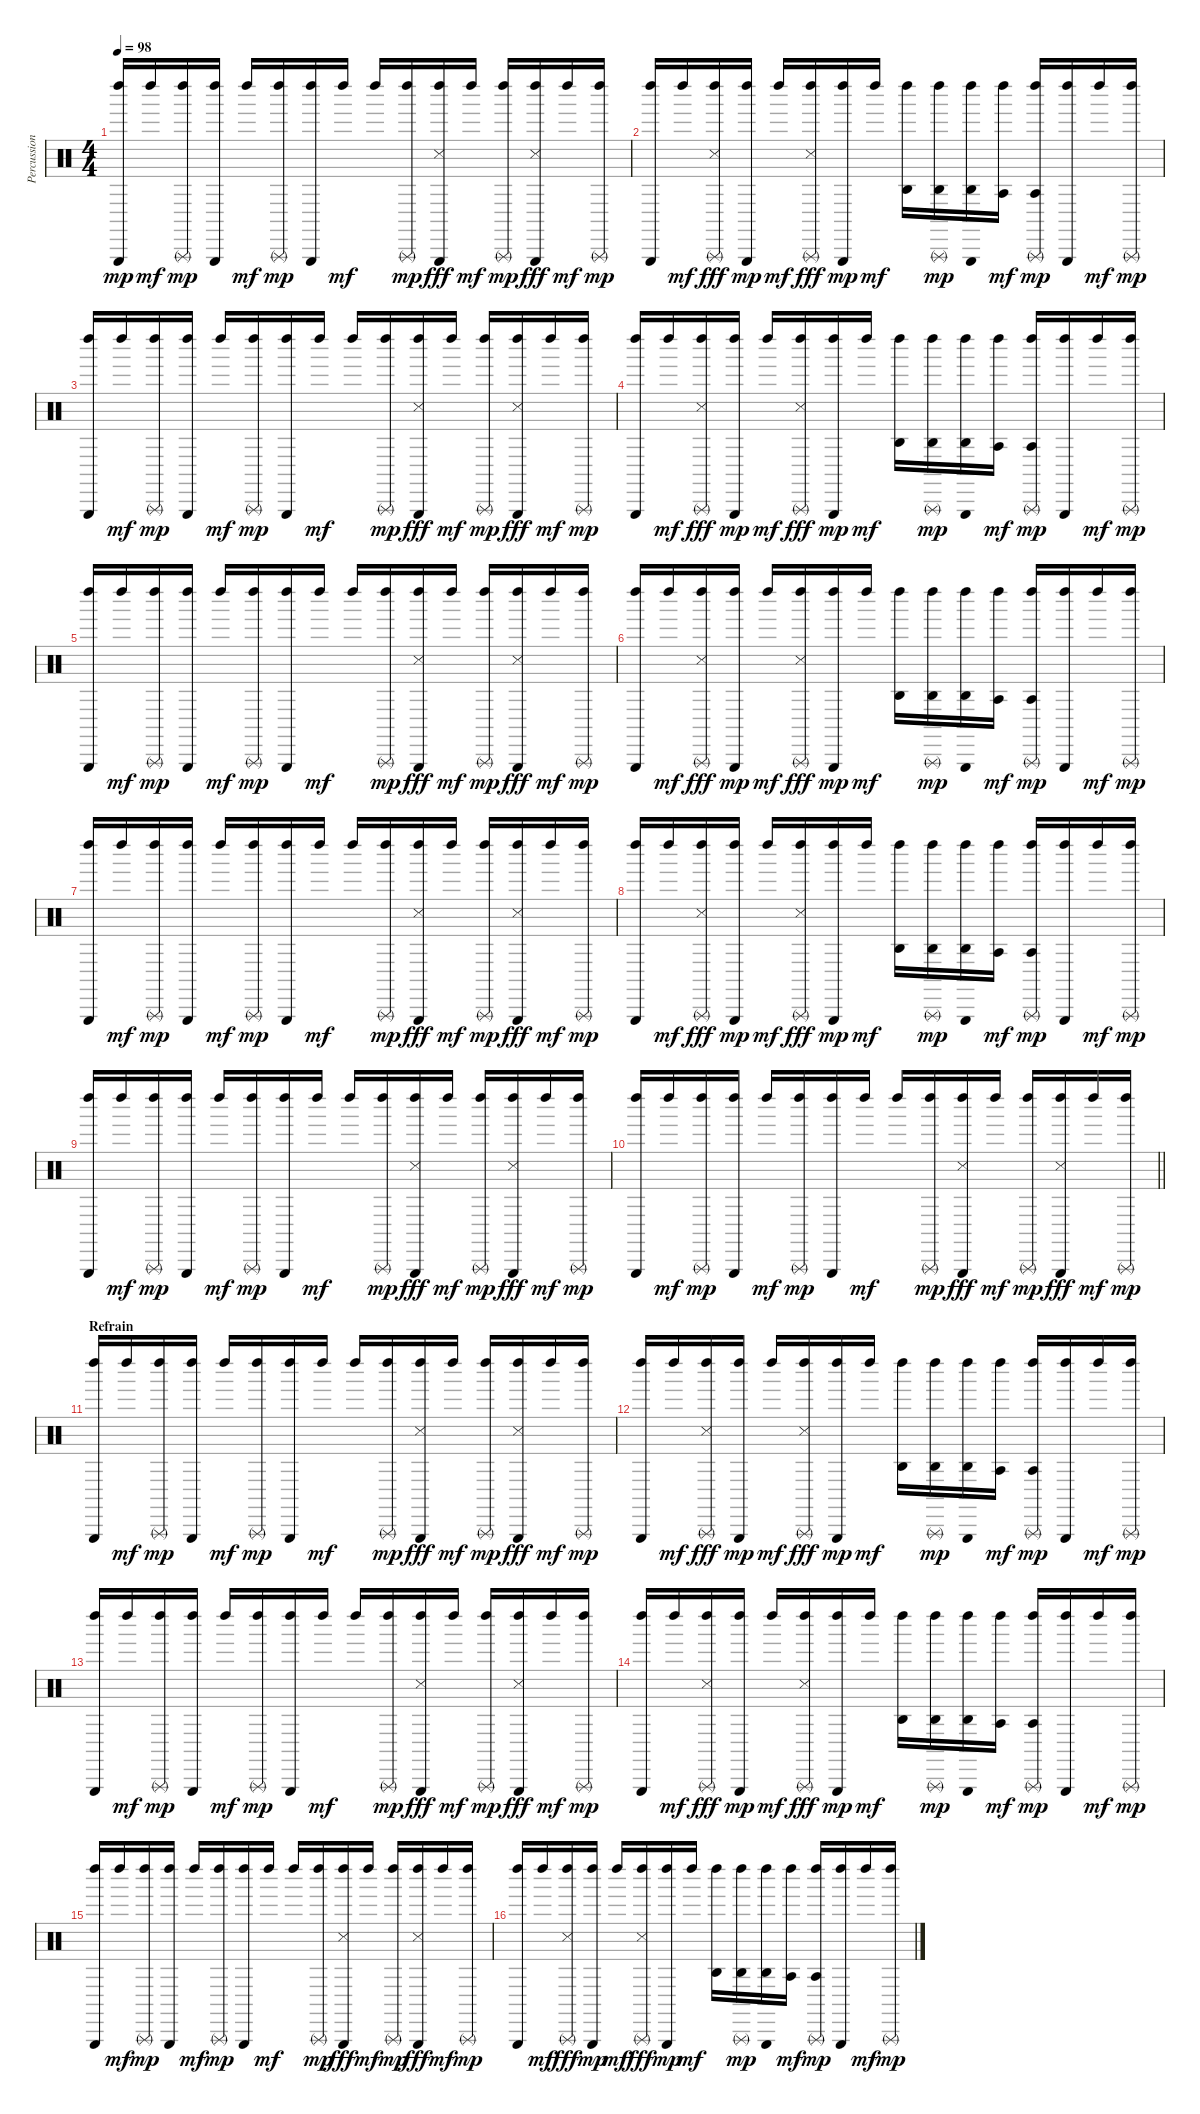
\track ("Percussions (Dr-0)" "Percussion") {instrument percussion}
\staff {score}
\articulation defaults
\ts (4 4)
\tempo 98
\clef neutral
\ks c
("Left Maraca (hit)" "Triangle (hit)").16{dy mp} "Left Maraca (hit)".16{dy mf} ("Left Maraca (hit)" "Triangle (rnute)").16{dy mp} ("Left Maraca (hit)" "Triangle (hit)").16 "Left Maraca (hit)".16{dy mf} ("Left Maraca (hit)" "Triangle (rnute)").16{dy mp} ("Left Maraca (hit)" "Triangle (hit)").16 "Left Maraca (hit)".16{dy mf} "Left Maraca (hit)".16 ("Left Maraca (hit)" "Triangle (rnute)").16{dy mp} ("Left Maraca (hit)" "Triangle (hit)" "Snare (side stick) 3").16{dy fff} "Left Maraca (hit)".16{dy mf} ("Left Maraca (hit)" "Triangle (rnute)").16{dy mp} ("Left Maraca (hit)" "Triangle (hit)" "Snare (side stick) 3").16{dy fff} "Left Maraca (hit)".16{dy mf} ("Left Maraca (hit)" "Triangle (rnute)").16{dy mp} |
("Left Maraca (hit)" "Triangle (hit)").16 "Left Maraca (hit)".16{dy mf} ("Left Maraca (hit)" "Triangle (rnute)" "Snare (side stick) 3").16{dy fff} ("Left Maraca (hit)" "Triangle (hit)").16{dy mp} "Left Maraca (hit)".16{dy mf} ("Left Maraca (hit)" "Triangle (rnute)" "Snare (side stick) 3").16{dy fff} ("Left Maraca (hit)" "Triangle (hit)").16{dy mp} "Left Maraca (hit)".16{dy mf} ("Left Maraca (hit)" "Agogo high (hit)").16 ("Left Maraca (hit)" "Triangle (rnute)" "Agogo high (hit)").16{dy mp} ("Left Maraca (hit)" "Triangle (hit)" "Agogo high (hit)").16 ("Left Maraca (hit)" "Agogo tow (hit)").16{dy mf} ("Left Maraca (hit)" "Triangle (rnute)" "Agogo tow (hit)").16{dy mp} ("Left Maraca (hit)" "Triangle (hit)").16 "Left Maraca (hit)".16{dy mf} ("Left Maraca (hit)" "Triangle (rnute)").16{dy mp} |
("Left Maraca (hit)" "Triangle (hit)").16 "Left Maraca (hit)".16{dy mf} ("Left Maraca (hit)" "Triangle (rnute)").16{dy mp} ("Left Maraca (hit)" "Triangle (hit)").16 "Left Maraca (hit)".16{dy mf} ("Left Maraca (hit)" "Triangle (rnute)").16{dy mp} ("Left Maraca (hit)" "Triangle (hit)").16 "Left Maraca (hit)".16{dy mf} "Left Maraca (hit)".16 ("Left Maraca (hit)" "Triangle (rnute)").16{dy mp} ("Left Maraca (hit)" "Triangle (hit)" "Snare (side stick) 3").16{dy fff} "Left Maraca (hit)".16{dy mf} ("Left Maraca (hit)" "Triangle (rnute)").16{dy mp} ("Left Maraca (hit)" "Triangle (hit)" "Snare (side stick) 3").16{dy fff} "Left Maraca (hit)".16{dy mf} ("Left Maraca (hit)" "Triangle (rnute)").16{dy mp} |
("Left Maraca (hit)" "Triangle (hit)").16 "Left Maraca (hit)".16{dy mf} ("Left Maraca (hit)" "Triangle (rnute)" "Snare (side stick) 3").16{dy fff} ("Left Maraca (hit)" "Triangle (hit)").16{dy mp} "Left Maraca (hit)".16{dy mf} ("Left Maraca (hit)" "Triangle (rnute)" "Snare (side stick) 3").16{dy fff} ("Left Maraca (hit)" "Triangle (hit)").16{dy mp} "Left Maraca (hit)".16{dy mf} ("Left Maraca (hit)" "Agogo high (hit)").16 ("Left Maraca (hit)" "Triangle (rnute)" "Agogo high (hit)").16{dy mp} ("Left Maraca (hit)" "Triangle (hit)" "Agogo high (hit)").16 ("Left Maraca (hit)" "Agogo tow (hit)").16{dy mf} ("Left Maraca (hit)" "Triangle (rnute)" "Agogo tow (hit)").16{dy mp} ("Left Maraca (hit)" "Triangle (hit)").16 "Left Maraca (hit)".16{dy mf} ("Left Maraca (hit)" "Triangle (rnute)").16{dy mp} |
("Left Maraca (hit)" "Triangle (hit)").16 "Left Maraca (hit)".16{dy mf} ("Left Maraca (hit)" "Triangle (rnute)").16{dy mp} ("Left Maraca (hit)" "Triangle (hit)").16 "Left Maraca (hit)".16{dy mf} ("Left Maraca (hit)" "Triangle (rnute)").16{dy mp} ("Left Maraca (hit)" "Triangle (hit)").16 "Left Maraca (hit)".16{dy mf} "Left Maraca (hit)".16 ("Left Maraca (hit)" "Triangle (rnute)").16{dy mp} ("Left Maraca (hit)" "Triangle (hit)" "Snare (side stick) 3").16{dy fff} "Left Maraca (hit)".16{dy mf} ("Left Maraca (hit)" "Triangle (rnute)").16{dy mp} ("Left Maraca (hit)" "Triangle (hit)" "Snare (side stick) 3").16{dy fff} "Left Maraca (hit)".16{dy mf} ("Left Maraca (hit)" "Triangle (rnute)").16{dy mp} |
("Left Maraca (hit)" "Triangle (hit)").16 "Left Maraca (hit)".16{dy mf} ("Left Maraca (hit)" "Triangle (rnute)" "Snare (side stick) 3").16{dy fff} ("Left Maraca (hit)" "Triangle (hit)").16{dy mp} "Left Maraca (hit)".16{dy mf} ("Left Maraca (hit)" "Triangle (rnute)" "Snare (side stick) 3").16{dy fff} ("Left Maraca (hit)" "Triangle (hit)").16{dy mp} "Left Maraca (hit)".16{dy mf} ("Left Maraca (hit)" "Agogo high (hit)").16 ("Left Maraca (hit)" "Triangle (rnute)" "Agogo high (hit)").16{dy mp} ("Left Maraca (hit)" "Triangle (hit)" "Agogo high (hit)").16 ("Left Maraca (hit)" "Agogo tow (hit)").16{dy mf} ("Left Maraca (hit)" "Triangle (rnute)" "Agogo tow (hit)").16{dy mp} ("Left Maraca (hit)" "Triangle (hit)").16 "Left Maraca (hit)".16{dy mf} ("Left Maraca (hit)" "Triangle (rnute)").16{dy mp} |
("Left Maraca (hit)" "Triangle (hit)").16 "Left Maraca (hit)".16{dy mf} ("Left Maraca (hit)" "Triangle (rnute)").16{dy mp} ("Left Maraca (hit)" "Triangle (hit)").16 "Left Maraca (hit)".16{dy mf} ("Left Maraca (hit)" "Triangle (rnute)").16{dy mp} ("Left Maraca (hit)" "Triangle (hit)").16 "Left Maraca (hit)".16{dy mf} "Left Maraca (hit)".16 ("Left Maraca (hit)" "Triangle (rnute)").16{dy mp} ("Left Maraca (hit)" "Triangle (hit)" "Snare (side stick) 3").16{dy fff} "Left Maraca (hit)".16{dy mf} ("Left Maraca (hit)" "Triangle (rnute)").16{dy mp} ("Left Maraca (hit)" "Triangle (hit)" "Snare (side stick) 3").16{dy fff} "Left Maraca (hit)".16{dy mf} ("Left Maraca (hit)" "Triangle (rnute)").16{dy mp} |
("Left Maraca (hit)" "Triangle (hit)").16 "Left Maraca (hit)".16{dy mf} ("Left Maraca (hit)" "Triangle (rnute)" "Snare (side stick) 3").16{dy fff} ("Left Maraca (hit)" "Triangle (hit)").16{dy mp} "Left Maraca (hit)".16{dy mf} ("Left Maraca (hit)" "Triangle (rnute)" "Snare (side stick) 3").16{dy fff} ("Left Maraca (hit)" "Triangle (hit)").16{dy mp} "Left Maraca (hit)".16{dy mf} ("Left Maraca (hit)" "Agogo high (hit)").16 ("Left Maraca (hit)" "Triangle (rnute)" "Agogo high (hit)").16{dy mp} ("Left Maraca (hit)" "Triangle (hit)" "Agogo high (hit)").16 ("Left Maraca (hit)" "Agogo tow (hit)").16{dy mf} ("Left Maraca (hit)" "Triangle (rnute)" "Agogo tow (hit)").16{dy mp} ("Left Maraca (hit)" "Triangle (hit)").16 "Left Maraca (hit)".16{dy mf} ("Left Maraca (hit)" "Triangle (rnute)").16{dy mp} |
("Left Maraca (hit)" "Triangle (hit)").16 "Left Maraca (hit)".16{dy mf} ("Left Maraca (hit)" "Triangle (rnute)").16{dy mp} ("Left Maraca (hit)" "Triangle (hit)").16 "Left Maraca (hit)".16{dy mf} ("Left Maraca (hit)" "Triangle (rnute)").16{dy mp} ("Left Maraca (hit)" "Triangle (hit)").16 "Left Maraca (hit)".16{dy mf} "Left Maraca (hit)".16 ("Left Maraca (hit)" "Triangle (rnute)").16{dy mp} ("Left Maraca (hit)" "Triangle (hit)" "Snare (side stick) 3").16{dy fff} "Left Maraca (hit)".16{dy mf} ("Left Maraca (hit)" "Triangle (rnute)").16{dy mp} ("Left Maraca (hit)" "Triangle (hit)" "Snare (side stick) 3").16{dy fff} "Left Maraca (hit)".16{dy mf} ("Left Maraca (hit)" "Triangle (rnute)").16{dy mp} |
\barLineRight lightlight
("Left Maraca (hit)" "Triangle (hit)").16 "Left Maraca (hit)".16{dy mf} ("Left Maraca (hit)" "Triangle (rnute)").16{dy mp} ("Left Maraca (hit)" "Triangle (hit)").16 "Left Maraca (hit)".16{dy mf} ("Left Maraca (hit)" "Triangle (rnute)").16{dy mp} ("Left Maraca (hit)" "Triangle (hit)").16 "Left Maraca (hit)".16{dy mf} "Left Maraca (hit)".16 ("Left Maraca (hit)" "Triangle (rnute)").16{dy mp} ("Left Maraca (hit)" "Triangle (hit)" "Snare (side stick) 3").16{dy fff} "Left Maraca (hit)".16{dy mf} ("Left Maraca (hit)" "Triangle (rnute)").16{dy mp} ("Left Maraca (hit)" "Triangle (hit)" "Snare (side stick) 3").16{dy fff} "Left Maraca (hit)".16{dy mf} ("Left Maraca (hit)" "Triangle (rnute)").16{dy mp} |
\section ("" "Refrain")
("Left Maraca (hit)" "Triangle (hit)").16 "Left Maraca (hit)".16{dy mf} ("Left Maraca (hit)" "Triangle (rnute)").16{dy mp} ("Left Maraca (hit)" "Triangle (hit)").16 "Left Maraca (hit)".16{dy mf} ("Left Maraca (hit)" "Triangle (rnute)").16{dy mp} ("Left Maraca (hit)" "Triangle (hit)").16 "Left Maraca (hit)".16{dy mf} "Left Maraca (hit)".16 ("Left Maraca (hit)" "Triangle (rnute)").16{dy mp} ("Left Maraca (hit)" "Triangle (hit)" "Snare (side stick) 3").16{dy fff} "Left Maraca (hit)".16{dy mf} ("Left Maraca (hit)" "Triangle (rnute)").16{dy mp} ("Left Maraca (hit)" "Triangle (hit)" "Snare (side stick) 3").16{dy fff} "Left Maraca (hit)".16{dy mf} ("Left Maraca (hit)" "Triangle (rnute)").16{dy mp} |
("Left Maraca (hit)" "Triangle (hit)").16 "Left Maraca (hit)".16{dy mf} ("Left Maraca (hit)" "Triangle (rnute)" "Snare (side stick) 3").16{dy fff} ("Left Maraca (hit)" "Triangle (hit)").16{dy mp} "Left Maraca (hit)".16{dy mf} ("Left Maraca (hit)" "Triangle (rnute)" "Snare (side stick) 3").16{dy fff} ("Left Maraca (hit)" "Triangle (hit)").16{dy mp} "Left Maraca (hit)".16{dy mf} ("Left Maraca (hit)" "Agogo high (hit)").16 ("Left Maraca (hit)" "Triangle (rnute)" "Agogo high (hit)").16{dy mp} ("Left Maraca (hit)" "Triangle (hit)" "Agogo high (hit)").16 ("Left Maraca (hit)" "Agogo tow (hit)").16{dy mf} ("Left Maraca (hit)" "Triangle (rnute)" "Agogo tow (hit)").16{dy mp} ("Left Maraca (hit)" "Triangle (hit)").16 "Left Maraca (hit)".16{dy mf} ("Left Maraca (hit)" "Triangle (rnute)").16{dy mp} |
("Left Maraca (hit)" "Triangle (hit)").16 "Left Maraca (hit)".16{dy mf} ("Left Maraca (hit)" "Triangle (rnute)").16{dy mp} ("Left Maraca (hit)" "Triangle (hit)").16 "Left Maraca (hit)".16{dy mf} ("Left Maraca (hit)" "Triangle (rnute)").16{dy mp} ("Left Maraca (hit)" "Triangle (hit)").16 "Left Maraca (hit)".16{dy mf} "Left Maraca (hit)".16 ("Left Maraca (hit)" "Triangle (rnute)").16{dy mp} ("Left Maraca (hit)" "Triangle (hit)" "Snare (side stick) 3").16{dy fff} "Left Maraca (hit)".16{dy mf} ("Left Maraca (hit)" "Triangle (rnute)").16{dy mp} ("Left Maraca (hit)" "Triangle (hit)" "Snare (side stick) 3").16{dy fff} "Left Maraca (hit)".16{dy mf} ("Left Maraca (hit)" "Triangle (rnute)").16{dy mp} |
("Left Maraca (hit)" "Triangle (hit)").16 "Left Maraca (hit)".16{dy mf} ("Left Maraca (hit)" "Triangle (rnute)" "Snare (side stick) 3").16{dy fff} ("Left Maraca (hit)" "Triangle (hit)").16{dy mp} "Left Maraca (hit)".16{dy mf} ("Left Maraca (hit)" "Triangle (rnute)" "Snare (side stick) 3").16{dy fff} ("Left Maraca (hit)" "Triangle (hit)").16{dy mp} "Left Maraca (hit)".16{dy mf} ("Left Maraca (hit)" "Agogo high (hit)").16 ("Left Maraca (hit)" "Triangle (rnute)" "Agogo high (hit)").16{dy mp} ("Left Maraca (hit)" "Triangle (hit)" "Agogo high (hit)").16 ("Left Maraca (hit)" "Agogo tow (hit)").16{dy mf} ("Left Maraca (hit)" "Triangle (rnute)" "Agogo tow (hit)").16{dy mp} ("Left Maraca (hit)" "Triangle (hit)").16 "Left Maraca (hit)".16{dy mf} ("Left Maraca (hit)" "Triangle (rnute)").16{dy mp} |
("Left Maraca (hit)" "Triangle (hit)").16 "Left Maraca (hit)".16{dy mf} ("Left Maraca (hit)" "Triangle (rnute)").16{dy mp} ("Left Maraca (hit)" "Triangle (hit)").16 "Left Maraca (hit)".16{dy mf} ("Left Maraca (hit)" "Triangle (rnute)").16{dy mp} ("Left Maraca (hit)" "Triangle (hit)").16 "Left Maraca (hit)".16{dy mf} "Left Maraca (hit)".16 ("Left Maraca (hit)" "Triangle (rnute)").16{dy mp} ("Left Maraca (hit)" "Triangle (hit)" "Snare (side stick) 3").16{dy fff} "Left Maraca (hit)".16{dy mf} ("Left Maraca (hit)" "Triangle (rnute)").16{dy mp} ("Left Maraca (hit)" "Triangle (hit)" "Snare (side stick) 3").16{dy fff} "Left Maraca (hit)".16{dy mf} ("Left Maraca (hit)" "Triangle (rnute)").16{dy mp} |
("Left Maraca (hit)" "Triangle (hit)").16 "Left Maraca (hit)".16{dy mf} ("Left Maraca (hit)" "Triangle (rnute)" "Snare (side stick) 3").16{dy fff} ("Left Maraca (hit)" "Triangle (hit)").16{dy mp} "Left Maraca (hit)".16{dy mf} ("Left Maraca (hit)" "Triangle (rnute)" "Snare (side stick) 3").16{dy fff} ("Left Maraca (hit)" "Triangle (hit)").16{dy mp} "Left Maraca (hit)".16{dy mf} ("Left Maraca (hit)" "Agogo high (hit)").16 ("Left Maraca (hit)" "Triangle (rnute)" "Agogo high (hit)").16{dy mp} ("Left Maraca (hit)" "Triangle (hit)" "Agogo high (hit)").16 ("Left Maraca (hit)" "Agogo tow (hit)").16{dy mf} ("Left Maraca (hit)" "Triangle (rnute)" "Agogo tow (hit)").16{dy mp} ("Left Maraca (hit)" "Triangle (hit)").16 "Left Maraca (hit)".16{dy mf} ("Left Maraca (hit)" "Triangle (rnute)").16{dy mp}
